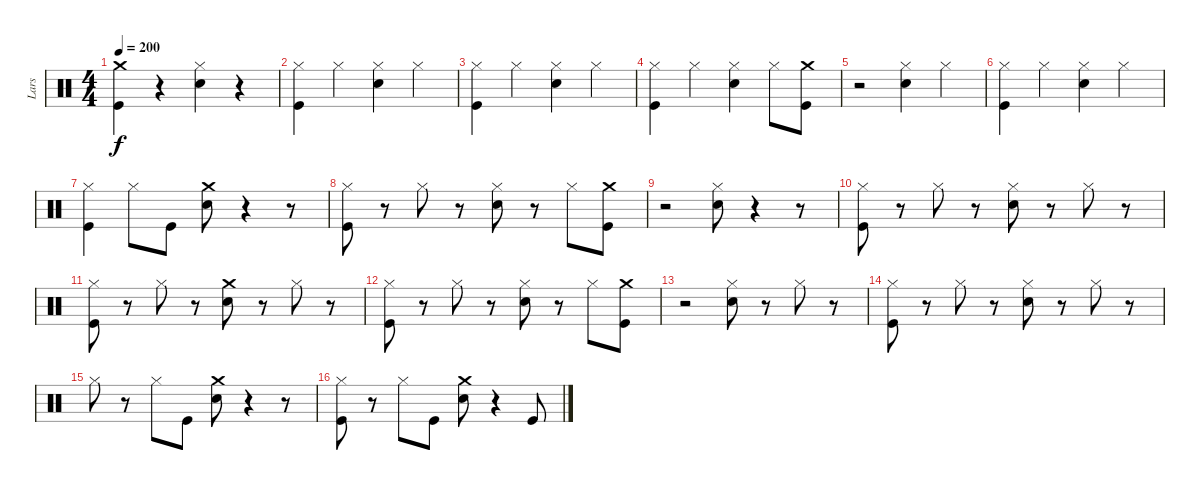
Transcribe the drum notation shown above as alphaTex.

\track ("Lars" "Lars") {instrument percussion}
\staff {score}
\articulation defaults
\ts (4 4)
\tempo 200
\clef neutral
\ks c
("Crash medium (hit)" "Kick (hit)").4{dy f} r.4 ("Hi-Hat (closed)" "Snare (hit) 2").4 r.4 |
("Hi-Hat (closed)" "Kick (hit)").4 "Hi-Hat (closed)".4 ("Snare (hit) 2" "Hi-Hat (closed)").4 "Hi-Hat (closed)".4 |
("Hi-Hat (closed)" "Kick (hit)").4 "Hi-Hat (closed)".4 ("Snare (hit) 2" "Hi-Hat (closed)").4 "Hi-Hat (closed)".4 |
("Hi-Hat (closed)" "Kick (hit)").4 "Hi-Hat (closed)".4 ("Snare (hit) 2" "Hi-Hat (closed)").4 "Hi-Hat (closed)".8 ("Crash medium (hit)" "Kick (hit)").8 |
r.2 ("Hi-Hat (closed)" "Snare (hit) 2").4 "Hi-Hat (closed)".4 |
("Hi-Hat (closed)" "Kick (hit)").4 "Hi-Hat (closed)".4 ("Snare (hit) 2" "Hi-Hat (closed)").4 "Hi-Hat (closed)".4 |
("Hi-Hat (closed)" "Kick (hit)").4 "Hi-Hat (closed)".8 "Kick (hit)".8 ("Crash medium (hit)" "Snare (hit) 2").8 r.4 r.8 |
("Hi-Hat (closed)" "Kick (hit)").8 r.8 "Hi-Hat (closed)".8 r.8 ("Snare (hit) 2" "Hi-Hat (closed)").8 r.8 "Hi-Hat (closed)".8 ("Crash medium (hit)" "Kick (hit)").8 |
r.2 ("Hi-Hat (closed)" "Snare (hit) 2").8 r.4 r.8 |
("Hi-Hat (closed)" "Kick (hit)").8 r.8 "Hi-Hat (closed)".8 r.8 ("Snare (hit) 2" "Hi-Hat (closed)").8 r.8 "Hi-Hat (closed)".8 r.8 |
("Hi-Hat (closed)" "Kick (hit)").8 r.8 "Hi-Hat (closed)".8 r.8 ("Crash medium (hit)" "Snare (hit) 2").8 r.8 "Hi-Hat (closed)".8 r.8 |
("Hi-Hat (closed)" "Kick (hit)").8 r.8 "Hi-Hat (closed)".8 r.8 ("Hi-Hat (closed)" "Snare (hit) 2").8 r.8 "Hi-Hat (closed)".8 ("Crash medium (hit)" "Kick (hit)").8 |
r.2 ("Hi-Hat (closed)" "Snare (hit) 2").8 r.8 "Hi-Hat (closed)".8 r.8 |
("Kick (hit)" "Hi-Hat (closed)").8 r.8 "Hi-Hat (closed)".8 r.8 ("Snare (hit) 2" "Hi-Hat (closed)").8 r.8 "Hi-Hat (closed)".8 r.8 |
"Hi-Hat (closed)".8 r.8 "Hi-Hat (closed)".8 "Kick (hit)".8 ("Crash medium (hit)" "Snare (hit) 2").8 r.4 r.8 |
("Kick (hit)" "Hi-Hat (closed)").8 r.8 "Hi-Hat (closed)".8 "Kick (hit)".8 ("Crash medium (hit)" "Snare (hit) 2").8 r.4 "Kick (hit)".8
